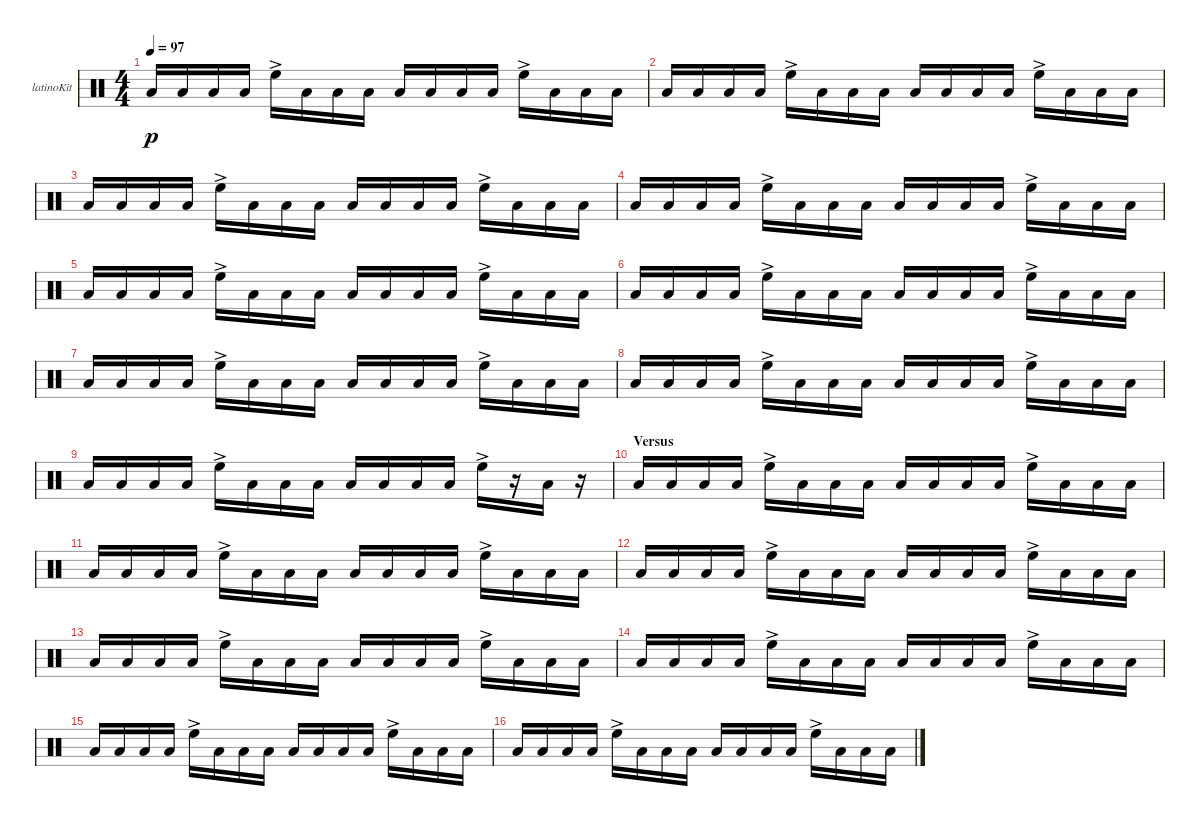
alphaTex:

\bracketExtendMode groupsimilarinstruments
\firstSystemTrackNameOrientation horizontal
\otherSystemsTrackNameOrientation horizontal
\track ("Kit-Latino" "latinoKit") {instrument percussion}
\staff {score}
\articulation defaults
\ts (4 4)
\tempo 97
\clef neutral
\ks c "Low Tom (hit)".16{dy p} "Low Tom (hit)".16 "Low Tom (hit)".16 "Low Tom (hit)".16 "High Floor Tom (hit)"{ac}.16 "Low Tom (hit)".16 "Low Tom (hit)".16 "Low Tom (hit)".16 "Low Tom (hit)".16 "Low Tom (hit)".16 "Low Tom (hit)".16 "Low Tom (hit)".16 "High Floor Tom (hit)"{ac}.16 "Low Tom (hit)".16 "Low Tom (hit)".16 "Low Tom (hit)".16
|
"Low Tom (hit)".16 "Low Tom (hit)".16 "Low Tom (hit)".16 "Low Tom (hit)".16 "High Floor Tom (hit)"{ac}.16 "Low Tom (hit)".16 "Low Tom (hit)".16 "Low Tom (hit)".16 "Low Tom (hit)".16 "Low Tom (hit)".16 "Low Tom (hit)".16 "Low Tom (hit)".16 "High Floor Tom (hit)"{ac}.16 "Low Tom (hit)".16 "Low Tom (hit)".16 "Low Tom (hit)".16 |
"Low Tom (hit)".16 "Low Tom (hit)".16 "Low Tom (hit)".16 "Low Tom (hit)".16 "High Floor Tom (hit)"{ac}.16 "Low Tom (hit)".16 "Low Tom (hit)".16 "Low Tom (hit)".16 "Low Tom (hit)".16 "Low Tom (hit)".16 "Low Tom (hit)".16 "Low Tom (hit)".16 "High Floor Tom (hit)"{ac}.16 "Low Tom (hit)".16 "Low Tom (hit)".16 "Low Tom (hit)".16 |
"Low Tom (hit)".16 "Low Tom (hit)".16 "Low Tom (hit)".16 "Low Tom (hit)".16 "High Floor Tom (hit)"{ac}.16 "Low Tom (hit)".16 "Low Tom (hit)".16 "Low Tom (hit)".16 "Low Tom (hit)".16 "Low Tom (hit)".16 "Low Tom (hit)".16 "Low Tom (hit)".16 "High Floor Tom (hit)"{ac}.16 "Low Tom (hit)".16 "Low Tom (hit)".16 "Low Tom (hit)".16 |
"Low Tom (hit)".16 "Low Tom (hit)".16 "Low Tom (hit)".16 "Low Tom (hit)".16 "High Floor Tom (hit)"{ac}.16 "Low Tom (hit)".16 "Low Tom (hit)".16 "Low Tom (hit)".16 "Low Tom (hit)".16 "Low Tom (hit)".16 "Low Tom (hit)".16 "Low Tom (hit)".16 "High Floor Tom (hit)"{ac}.16 "Low Tom (hit)".16 "Low Tom (hit)".16 "Low Tom (hit)".16 |
"Low Tom (hit)".16 "Low Tom (hit)".16 "Low Tom (hit)".16 "Low Tom (hit)".16 "High Floor Tom (hit)"{ac}.16 "Low Tom (hit)".16 "Low Tom (hit)".16 "Low Tom (hit)".16 "Low Tom (hit)".16 "Low Tom (hit)".16 "Low Tom (hit)".16 "Low Tom (hit)".16 "High Floor Tom (hit)"{ac}.16 "Low Tom (hit)".16 "Low Tom (hit)".16 "Low Tom (hit)".16 |
"Low Tom (hit)".16 "Low Tom (hit)".16 "Low Tom (hit)".16 "Low Tom (hit)".16 "High Floor Tom (hit)"{ac}.16 "Low Tom (hit)".16 "Low Tom (hit)".16 "Low Tom (hit)".16 "Low Tom (hit)".16 "Low Tom (hit)".16 "Low Tom (hit)".16 "Low Tom (hit)".16 "High Floor Tom (hit)"{ac}.16 "Low Tom (hit)".16 "Low Tom (hit)".16 "Low Tom (hit)".16 |
"Low Tom (hit)".16 "Low Tom (hit)".16 "Low Tom (hit)".16 "Low Tom (hit)".16 "High Floor Tom (hit)"{ac}.16 "Low Tom (hit)".16 "Low Tom (hit)".16 "Low Tom (hit)".16 "Low Tom (hit)".16 "Low Tom (hit)".16 "Low Tom (hit)".16 "Low Tom (hit)".16 "High Floor Tom (hit)"{ac}.16 "Low Tom (hit)".16 "Low Tom (hit)".16 "Low Tom (hit)".16 |
"Low Tom (hit)".16 "Low Tom (hit)".16 "Low Tom (hit)".16 "Low Tom (hit)".16 "High Floor Tom (hit)"{ac}.16 "Low Tom (hit)".16 "Low Tom (hit)".16 "Low Tom (hit)".16 "Low Tom (hit)".16 "Low Tom (hit)".16 "Low Tom (hit)".16 "Low Tom (hit)".16 "High Floor Tom (hit)"{ac}.16 r.16 "Low Tom (hit)".16 r.16 |
\section ("" "Versus")
"Low Tom (hit)".16 "Low Tom (hit)".16 "Low Tom (hit)".16 "Low Tom (hit)".16 "High Floor Tom (hit)"{ac}.16 "Low Tom (hit)".16 "Low Tom (hit)".16 "Low Tom (hit)".16 "Low Tom (hit)".16 "Low Tom (hit)".16 "Low Tom (hit)".16 "Low Tom (hit)".16 "High Floor Tom (hit)"{ac}.16 "Low Tom (hit)".16 "Low Tom (hit)".16 "Low Tom (hit)".16 |
"Low Tom (hit)".16 "Low Tom (hit)".16 "Low Tom (hit)".16 "Low Tom (hit)".16 "High Floor Tom (hit)"{ac}.16 "Low Tom (hit)".16 "Low Tom (hit)".16 "Low Tom (hit)".16 "Low Tom (hit)".16 "Low Tom (hit)".16 "Low Tom (hit)".16 "Low Tom (hit)".16 "High Floor Tom (hit)"{ac}.16 "Low Tom (hit)".16 "Low Tom (hit)".16 "Low Tom (hit)".16 |
"Low Tom (hit)".16 "Low Tom (hit)".16 "Low Tom (hit)".16 "Low Tom (hit)".16 "High Floor Tom (hit)"{ac}.16 "Low Tom (hit)".16 "Low Tom (hit)".16 "Low Tom (hit)".16 "Low Tom (hit)".16 "Low Tom (hit)".16 "Low Tom (hit)".16 "Low Tom (hit)".16 "High Floor Tom (hit)"{ac}.16 "Low Tom (hit)".16 "Low Tom (hit)".16 "Low Tom (hit)".16 |
"Low Tom (hit)".16 "Low Tom (hit)".16 "Low Tom (hit)".16 "Low Tom (hit)".16 "High Floor Tom (hit)"{ac}.16 "Low Tom (hit)".16 "Low Tom (hit)".16 "Low Tom (hit)".16 "Low Tom (hit)".16 "Low Tom (hit)".16 "Low Tom (hit)".16 "Low Tom (hit)".16 "High Floor Tom (hit)"{ac}.16 "Low Tom (hit)".16 "Low Tom (hit)".16 "Low Tom (hit)".16 |
"Low Tom (hit)".16 "Low Tom (hit)".16 "Low Tom (hit)".16 "Low Tom (hit)".16 "High Floor Tom (hit)"{ac}.16 "Low Tom (hit)".16 "Low Tom (hit)".16 "Low Tom (hit)".16 "Low Tom (hit)".16 "Low Tom (hit)".16 "Low Tom (hit)".16 "Low Tom (hit)".16 "High Floor Tom (hit)"{ac}.16 "Low Tom (hit)".16 "Low Tom (hit)".16 "Low Tom (hit)".16 |
"Low Tom (hit)".16 "Low Tom (hit)".16 "Low Tom (hit)".16 "Low Tom (hit)".16 "High Floor Tom (hit)"{ac}.16 "Low Tom (hit)".16 "Low Tom (hit)".16 "Low Tom (hit)".16 "Low Tom (hit)".16 "Low Tom (hit)".16 "Low Tom (hit)".16 "Low Tom (hit)".16 "High Floor Tom (hit)"{ac}.16 "Low Tom (hit)".16 "Low Tom (hit)".16 "Low Tom (hit)".16 |
"Low Tom (hit)".16 "Low Tom (hit)".16 "Low Tom (hit)".16 "Low Tom (hit)".16 "High Floor Tom (hit)"{ac}.16 "Low Tom (hit)".16 "Low Tom (hit)".16 "Low Tom (hit)".16 "Low Tom (hit)".16 "Low Tom (hit)".16 "Low Tom (hit)".16 "Low Tom (hit)".16 "High Floor Tom (hit)"{ac}.16 "Low Tom (hit)".16 "Low Tom (hit)".16 "Low Tom (hit)".16
